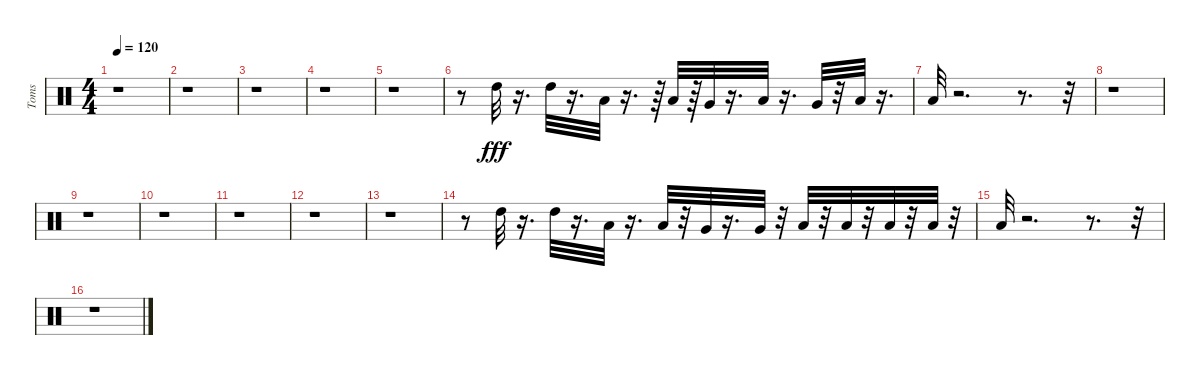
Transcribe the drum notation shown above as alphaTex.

\track ("Toms" "Toms") {instrument percussion}
\staff {score}
\articulation defaults
\ts (4 4)
\tempo 120
\clef neutral
\ks c
r.1{dy fff} |
r.1 |
r.1 |
r.1 |
r.1 |
r.8 "High Tom (hit)".32 r.16{d} "High Tom (hit)".32 r.16{d} "Low Tom (hit)".32 r.16{d} r.64 "Low Tom (hit)".32 r.64 "Very Low Tom (hit)".32 r.16{d} "Low Tom (hit)".32 r.16{d} "Very Low Tom (hit)".32 r.32 "Low Floor Tom (hit)".32 r.16{d} |
"Low Floor Tom (hit)".32 r.2{d} r.8{d} r.32 |
r.1 |
r.1 |
r.1 |
r.1 |
r.1 |
r.1 |
r.8 "High Tom (hit)".32 r.16{d} "High Tom (hit)".32 r.16{d} "Low Tom (hit)".32 r.16{d} "Low Tom (hit)".32 r.32 "Very Low Tom (hit)".32 r.16{d} "Very Low Tom (hit)".32 r.32 "Low Floor Tom (hit)".32 r.32 "Low Floor Tom (hit)".32 r.32 "Low Floor Tom (hit)".32 r.32 "Low Floor Tom (hit)".32 r.32 |
"Low Floor Tom (hit)".32 r.2{d} r.8{d} r.32 |
r.1
